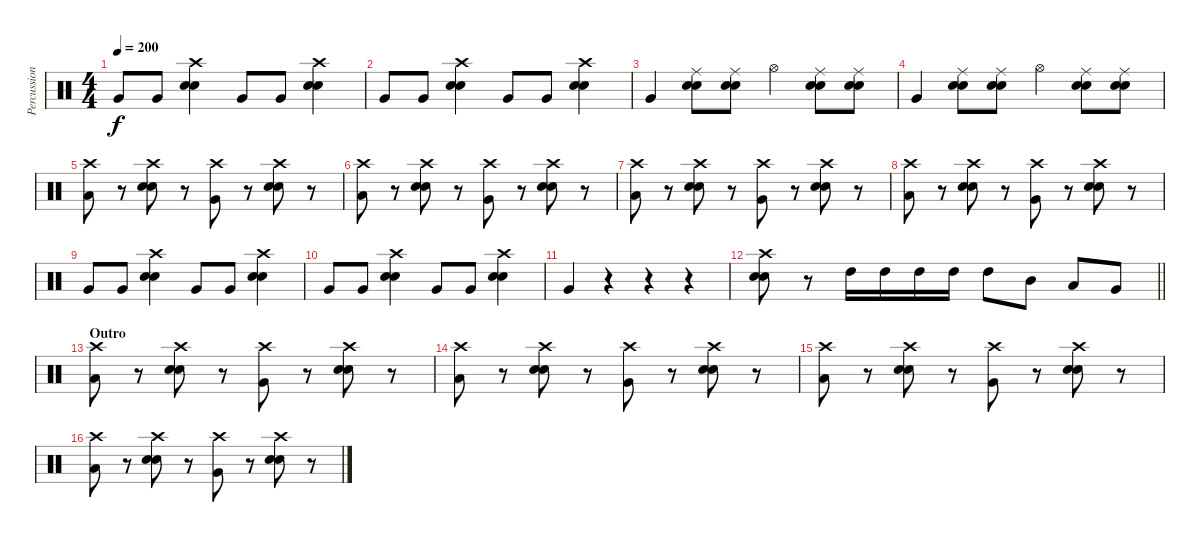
\track ("Percussion" "Percussion") {instrument percussion}
\staff {score}
\articulation defaults
\ts (4 4)
\tempo 200
\clef neutral
\ks c "Very Low Tom (hit)".8{dy f} "Very Low Tom (hit)".8
("Crash high (hit)" "Snare (hit) 2" "Electric Snare (hit)").4 "Very Low Tom (hit)".8 "Very Low Tom (hit)".8 ("Crash high (hit)" "Snare (hit) 2" "Electric Snare (hit)").4 |
"Very Low Tom (hit)".8 "Very Low Tom (hit)".8 ("Crash high (hit)" "Snare (hit) 2" "Electric Snare (hit)").4 "Very Low Tom (hit)".8 "Very Low Tom (hit)".8 ("Crash high (hit)" "Snare (hit) 2" "Electric Snare (hit)").4 |
"Very Low Tom (hit)".4 ("Ride (middle)" "Snare (hit) 2" "Electric Snare (hit)").8 ("Ride (middle)" "Snare (hit) 2" "Electric Snare (hit)").8 "Hi-Hat (open)".4 ("Ride (middle)" "Snare (hit) 2" "Electric Snare (hit)").8 ("Ride (middle)" "Snare (hit) 2" "Electric Snare (hit)").8 |
"Very Low Tom (hit)".4 ("Ride (middle)" "Snare (hit) 2" "Electric Snare (hit)").8 ("Ride (middle)" "Snare (hit) 2" "Electric Snare (hit)").8 "Hi-Hat (open)".4 ("Ride (middle)" "Snare (hit) 2" "Electric Snare (hit)").8 ("Ride (middle)" "Snare (hit) 2" "Electric Snare (hit)").8 |
("Crash high (hit)" "Low Floor Tom (hit)").8 r.8 ("Crash high (hit)" "Snare (hit) 2" "Electric Snare (hit)").8 r.8 ("Crash high (hit)" "Very Low Tom (hit)").8 r.8 ("Crash high (hit)" "Snare (hit) 2" "Electric Snare (hit)").8 r.8 |
("Crash high (hit)" "Low Floor Tom (hit)").8 r.8 ("Crash high (hit)" "Snare (hit) 2" "Electric Snare (hit)").8 r.8 ("Crash high (hit)" "Very Low Tom (hit)").8 r.8 ("Crash high (hit)" "Snare (hit) 2" "Electric Snare (hit)").8 r.8 |
("Crash high (hit)" "Low Floor Tom (hit)").8 r.8 ("Crash high (hit)" "Snare (hit) 2" "Electric Snare (hit)").8 r.8 ("Crash high (hit)" "Very Low Tom (hit)").8 r.8 ("Crash high (hit)" "Snare (hit) 2" "Electric Snare (hit)").8 r.8 |
("Crash high (hit)" "Low Floor Tom (hit)").8 r.8 ("Crash high (hit)" "Snare (hit) 2" "Electric Snare (hit)").8 r.8 ("Crash high (hit)" "Very Low Tom (hit)").8 r.8 ("Crash high (hit)" "Snare (hit) 2" "Electric Snare (hit)").8 r.8 |
"Very Low Tom (hit)".8 "Very Low Tom (hit)".8 ("Crash high (hit)" "Snare (hit) 2" "Electric Snare (hit)").4 "Very Low Tom (hit)".8 "Very Low Tom (hit)".8 ("Crash high (hit)" "Snare (hit) 2" "Electric Snare (hit)").4 |
"Very Low Tom (hit)".8 "Very Low Tom (hit)".8 ("Crash high (hit)" "Snare (hit) 2" "Electric Snare (hit)").4 "Very Low Tom (hit)".8 "Very Low Tom (hit)".8 ("Crash high (hit)" "Snare (hit) 2" "Electric Snare (hit)").4 |
"Very Low Tom (hit)".4 r.4 r.4 r.4 |
\barLineRight lightlight
("Crash high (hit)" "Electric Snare (hit)" "Snare (hit) 2").8 r.8 "High Tom (hit)".16 "High Tom (hit)".16 "High Tom (hit)".16 "High Tom (hit)".16 "High Tom (hit)".8 "Mid Tom (hit)".8 "Low Tom (hit)".8 "Very Low Tom (hit)".8 |
\section ("" "Outro")
("Crash high (hit)" "Low Floor Tom (hit)").8 r.8 ("Crash high (hit)" "Snare (hit) 2" "Electric Snare (hit)").8 r.8 ("Crash high (hit)" "Very Low Tom (hit)").8 r.8 ("Crash high (hit)" "Snare (hit) 2" "Electric Snare (hit)").8 r.8 |
("Crash high (hit)" "Low Floor Tom (hit)").8 r.8 ("Crash high (hit)" "Snare (hit) 2" "Electric Snare (hit)").8 r.8 ("Crash high (hit)" "Very Low Tom (hit)").8 r.8 ("Crash high (hit)" "Snare (hit) 2" "Electric Snare (hit)").8 r.8 |
("Crash high (hit)" "Low Floor Tom (hit)").8 r.8 ("Crash high (hit)" "Snare (hit) 2" "Electric Snare (hit)").8 r.8 ("Crash high (hit)" "Very Low Tom (hit)").8 r.8 ("Crash high (hit)" "Snare (hit) 2" "Electric Snare (hit)").8 r.8 |
("Crash high (hit)" "Low Floor Tom (hit)").8 r.8 ("Crash high (hit)" "Snare (hit) 2" "Electric Snare (hit)").8 r.8 ("Crash high (hit)" "Very Low Tom (hit)").8 r.8 ("Crash high (hit)" "Snare (hit) 2" "Electric Snare (hit)").8 r.8
